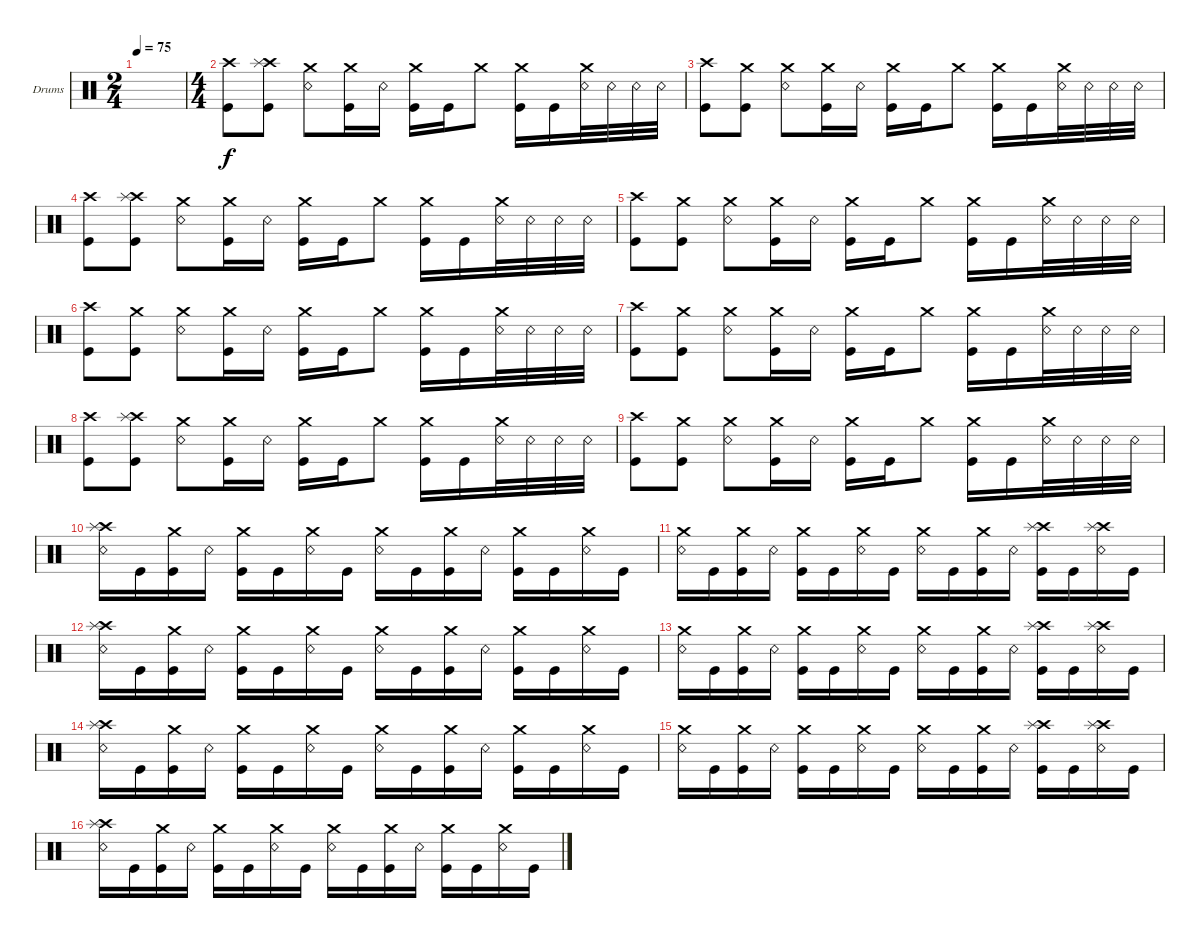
\defaultSystemsLayout 4
\bracketExtendMode groupsimilarinstruments
\firstSystemTrackNameOrientation horizontal
\otherSystemsTrackNameOrientation horizontal
\track ("Drumkit" "Drums") {instrument percussion}
\staff {score}
\articulation defaults
\ts (2 4)
\tempo 75
\clef neutral
\ks c
|
\ts (4 4)
("Kick (hit)" "Crash high (hit)").8 ("Kick (hit)" "Crash high (hit)" "Splash (hit)").8 ("Crash medium (hit)" "Snare (rim shot)").8 ("Crash medium (hit)" "Kick (hit)").16 "Snare (rim shot)".16 ("Crash medium (hit)" "Kick (hit)").16 "Kick (hit)".16 "Crash medium (hit)".8 ("Crash medium (hit)" "Kick (hit)").16 "Kick (hit)".16 ("Crash medium (hit)" "Snare (rim shot)").32 "Snare (rim shot)".32 "Snare (rim shot)".32 "Snare (rim shot)".32 |
("Kick (hit)" "Crash high (hit)").8 ("Kick (hit)" "Crash medium (hit)").8 ("Crash medium (hit)" "Snare (rim shot)").8 ("Crash medium (hit)" "Kick (hit)").16 "Snare (rim shot)".16 ("Crash medium (hit)" "Kick (hit)").16 "Kick (hit)".16 "Crash medium (hit)".8 ("Crash medium (hit)" "Kick (hit)").16 "Kick (hit)".16 ("Crash medium (hit)" "Snare (rim shot)").32 "Snare (rim shot)".32 "Snare (rim shot)".32 "Snare (rim shot)".32 |
("Kick (hit)" "Crash high (hit)").8 ("Kick (hit)" "Crash high (hit)" "Splash (hit)").8 ("Crash medium (hit)" "Snare (rim shot)").8 ("Crash medium (hit)" "Kick (hit)").16 "Snare (rim shot)".16 ("Crash medium (hit)" "Kick (hit)").16 "Kick (hit)".16 "Crash medium (hit)".8 ("Crash medium (hit)" "Kick (hit)").16 "Kick (hit)".16 ("Crash medium (hit)" "Snare (rim shot)").32 "Snare (rim shot)".32 "Snare (rim shot)".32 "Snare (rim shot)".32 |
("Kick (hit)" "Crash high (hit)").8 ("Kick (hit)" "Crash medium (hit)").8 ("Crash medium (hit)" "Snare (rim shot)").8 ("Crash medium (hit)" "Kick (hit)").16 "Snare (rim shot)".16 ("Crash medium (hit)" "Kick (hit)").16 "Kick (hit)".16 "Crash medium (hit)".8 ("Crash medium (hit)" "Kick (hit)").16 "Kick (hit)".16 ("Crash medium (hit)" "Snare (rim shot)").32 "Snare (rim shot)".32 "Snare (rim shot)".32 "Snare (rim shot)".32 |
("Kick (hit)" "Crash high (hit)").8 ("Kick (hit)" "Crash medium (hit)").8 ("Crash medium (hit)" "Snare (rim shot)").8 ("Crash medium (hit)" "Kick (hit)").16 "Snare (rim shot)".16 ("Crash medium (hit)" "Kick (hit)").16 "Kick (hit)".16 "Crash medium (hit)".8 ("Crash medium (hit)" "Kick (hit)").16 "Kick (hit)".16 ("Crash medium (hit)" "Snare (rim shot)").32 "Snare (rim shot)".32 "Snare (rim shot)".32 "Snare (rim shot)".32 |
("Kick (hit)" "Crash high (hit)").8 ("Kick (hit)" "Crash medium (hit)").8 ("Crash medium (hit)" "Snare (rim shot)").8 ("Crash medium (hit)" "Kick (hit)").16 "Snare (rim shot)".16 ("Crash medium (hit)" "Kick (hit)").16 "Kick (hit)".16 "Crash medium (hit)".8 ("Crash medium (hit)" "Kick (hit)").16 "Kick (hit)".16 ("Crash medium (hit)" "Snare (rim shot)").32 "Snare (rim shot)".32 "Snare (rim shot)".32 "Snare (rim shot)".32 |
("Kick (hit)" "Crash high (hit)").8 ("Kick (hit)" "Crash high (hit)" "Splash (hit)").8 ("Crash medium (hit)" "Snare (rim shot)").8 ("Crash medium (hit)" "Kick (hit)").16 "Snare (rim shot)".16 ("Crash medium (hit)" "Kick (hit)").16 "Kick (hit)".16 "Crash medium (hit)".8 ("Crash medium (hit)" "Kick (hit)").16 "Kick (hit)".16 ("Crash medium (hit)" "Snare (rim shot)").32 "Snare (rim shot)".32 "Snare (rim shot)".32 "Snare (rim shot)".32 |
("Kick (hit)" "Crash high (hit)").8 ("Kick (hit)" "Crash medium (hit)").8 ("Crash medium (hit)" "Snare (rim shot)").8 ("Crash medium (hit)" "Kick (hit)").16 "Snare (rim shot)".16 ("Crash medium (hit)" "Kick (hit)").16 "Kick (hit)".16 "Crash medium (hit)".8 ("Crash medium (hit)" "Kick (hit)").16 "Kick (hit)".16 ("Crash medium (hit)" "Snare (rim shot)").32 "Snare (rim shot)".32 "Snare (rim shot)".32 "Snare (rim shot)".32 |
("Snare (rim shot)" "Crash high (hit)" "Splash (hit)").16 "Kick (hit)".16 ("Kick (hit)" "Crash medium (hit)").16 "Snare (rim shot)".16 ("Kick (hit)" "Crash medium (hit)").16 "Kick (hit)".16 ("Snare (rim shot)" "Crash medium (hit)").16 "Kick (hit)".16 ("Snare (rim shot)" "Crash medium (hit)").16 "Kick (hit)".16 ("Kick (hit)" "Crash medium (hit)").16 "Snare (rim shot)".16 ("Kick (hit)" "Crash medium (hit)").16 "Kick (hit)".16 ("Snare (rim shot)" "Crash medium (hit)").16 "Kick (hit)".16 |
("Snare (rim shot)" "Crash medium (hit)").16 "Kick (hit)".16 ("Kick (hit)" "Crash medium (hit)").16 "Snare (rim shot)".16 ("Kick (hit)" "Crash medium (hit)").16 "Kick (hit)".16 ("Snare (rim shot)" "Crash medium (hit)").16 "Kick (hit)".16 ("Snare (rim shot)" "Crash medium (hit)").16 "Kick (hit)".16 ("Kick (hit)" "Crash medium (hit)").16 "Snare (rim shot)".16 ("Kick (hit)" "Crash high (hit)" "Splash (hit)").16 "Kick (hit)".16 ("Snare (rim shot)" "Crash high (hit)" "Splash (hit)").16 "Kick (hit)".16 |
("Snare (rim shot)" "Crash high (hit)" "Splash (hit)").16 "Kick (hit)".16 ("Kick (hit)" "Crash medium (hit)").16 "Snare (rim shot)".16 ("Kick (hit)" "Crash medium (hit)").16 "Kick (hit)".16 ("Snare (rim shot)" "Crash medium (hit)").16 "Kick (hit)".16 ("Snare (rim shot)" "Crash medium (hit)").16 "Kick (hit)".16 ("Kick (hit)" "Crash medium (hit)").16 "Snare (rim shot)".16 ("Kick (hit)" "Crash medium (hit)").16 "Kick (hit)".16 ("Snare (rim shot)" "Crash medium (hit)").16 "Kick (hit)".16 |
("Snare (rim shot)" "Crash medium (hit)").16 "Kick (hit)".16 ("Kick (hit)" "Crash medium (hit)").16 "Snare (rim shot)".16 ("Kick (hit)" "Crash medium (hit)").16 "Kick (hit)".16 ("Snare (rim shot)" "Crash medium (hit)").16 "Kick (hit)".16 ("Snare (rim shot)" "Crash medium (hit)").16 "Kick (hit)".16 ("Kick (hit)" "Crash medium (hit)").16 "Snare (rim shot)".16 ("Kick (hit)" "Crash high (hit)" "Splash (hit)").16 "Kick (hit)".16 ("Snare (rim shot)" "Crash high (hit)" "Splash (hit)").16 "Kick (hit)".16 |
("Snare (rim shot)" "Crash high (hit)" "Splash (hit)").16 "Kick (hit)".16 ("Kick (hit)" "Crash medium (hit)").16 "Snare (rim shot)".16 ("Kick (hit)" "Crash medium (hit)").16 "Kick (hit)".16 ("Snare (rim shot)" "Crash medium (hit)").16 "Kick (hit)".16 ("Snare (rim shot)" "Crash medium (hit)").16 "Kick (hit)".16 ("Kick (hit)" "Crash medium (hit)").16 "Snare (rim shot)".16 ("Kick (hit)" "Crash medium (hit)").16 "Kick (hit)".16 ("Snare (rim shot)" "Crash medium (hit)").16 "Kick (hit)".16 |
("Snare (rim shot)" "Crash medium (hit)").16 "Kick (hit)".16 ("Kick (hit)" "Crash medium (hit)").16 "Snare (rim shot)".16 ("Kick (hit)" "Crash medium (hit)").16 "Kick (hit)".16 ("Snare (rim shot)" "Crash medium (hit)").16 "Kick (hit)".16 ("Snare (rim shot)" "Crash medium (hit)").16 "Kick (hit)".16 ("Kick (hit)" "Crash medium (hit)").16 "Snare (rim shot)".16 ("Kick (hit)" "Crash high (hit)" "Splash (hit)").16 "Kick (hit)".16 ("Snare (rim shot)" "Crash high (hit)" "Splash (hit)").16 "Kick (hit)".16 |
("Snare (rim shot)" "Crash high (hit)" "Splash (hit)").16 "Kick (hit)".16 ("Kick (hit)" "Crash medium (hit)").16 "Snare (rim shot)".16 ("Kick (hit)" "Crash medium (hit)").16 "Kick (hit)".16 ("Snare (rim shot)" "Crash medium (hit)").16 "Kick (hit)".16 ("Snare (rim shot)" "Crash medium (hit)").16 "Kick (hit)".16 ("Kick (hit)" "Crash medium (hit)").16 "Snare (rim shot)".16 ("Kick (hit)" "Crash medium (hit)").16 "Kick (hit)".16 ("Snare (rim shot)" "Crash medium (hit)").16 "Kick (hit)".16
